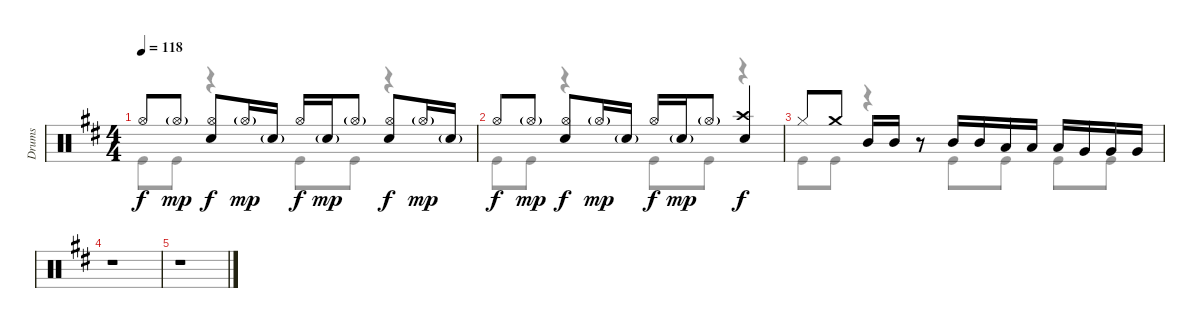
\track ("Drums" "Drums") {instrument percussion}
\staff {score}
\articulation defaults
\voice
\ts (4 4)
\tempo 118
\clef neutral
\ks d "Hi-Hat (open)".8{dy f} "Hi-Hat (open)"{g}.8{dy mp}
("Hi-Hat (open)" "Snare (hit) 2").8{dy f} "Hi-Hat (open)"{g}.16{dy mp} "Snare (hit) 2"{g}.16 "Hi-Hat (open)".16{dy f} "Snare (hit) 2"{g}.16{dy mp} "Hi-Hat (open)"{g}.8 ("Hi-Hat (open)" "Snare (hit) 2").8{dy f} "Hi-Hat (open)"{g}.16{dy mp} "Snare (hit) 2"{g}.16 |
"Hi-Hat (open)".8{dy f} "Hi-Hat (open)"{g}.8{dy mp} ("Hi-Hat (open)" "Snare (hit) 2").8{dy f} "Hi-Hat (open)"{g}.16{dy mp} "Snare (hit) 2"{g}.16 "Hi-Hat (open)".16{dy f} "Snare (hit) 2"{g}.16{dy mp} "Hi-Hat (open)"{g}.8 ("Crash high (hit)" "Snare (hit) 2").4{dy f} |
"Hi-Hat (closed)".8 "Crash medium (hit)".8 "Mid Tom (hit)".16 "Mid Tom (hit)".16 r.8 "Mid Tom (hit)".16 "Mid Tom (hit)".16 "Low Tom (hit)".16 "Low Tom (hit)".16 "Low Tom (hit)".16 "Very Low Tom (hit)".16 "Very Low Tom (hit)".16 "Very Low Tom (hit)".16 |
r.1 |
r.1
\voice
\clef neutral
\ottava regular
\simile none
\ks d "Kick (hit)".8{dy f} "Kick (hit)".8
r.4 "Kick (hit)".8 "Kick (hit)".8 r.4 |
"Kick (hit)".8 "Kick (hit)".8 r.4 "Kick (hit)".8 "Kick (hit)".8 r.4 |
"Kick (hit)".8 "Kick (hit)".8 r.4 "Kick (hit)".8 "Kick (hit)".8 "Kick (hit)".8 "Kick (hit)".8 |
r.1 |
r.1
